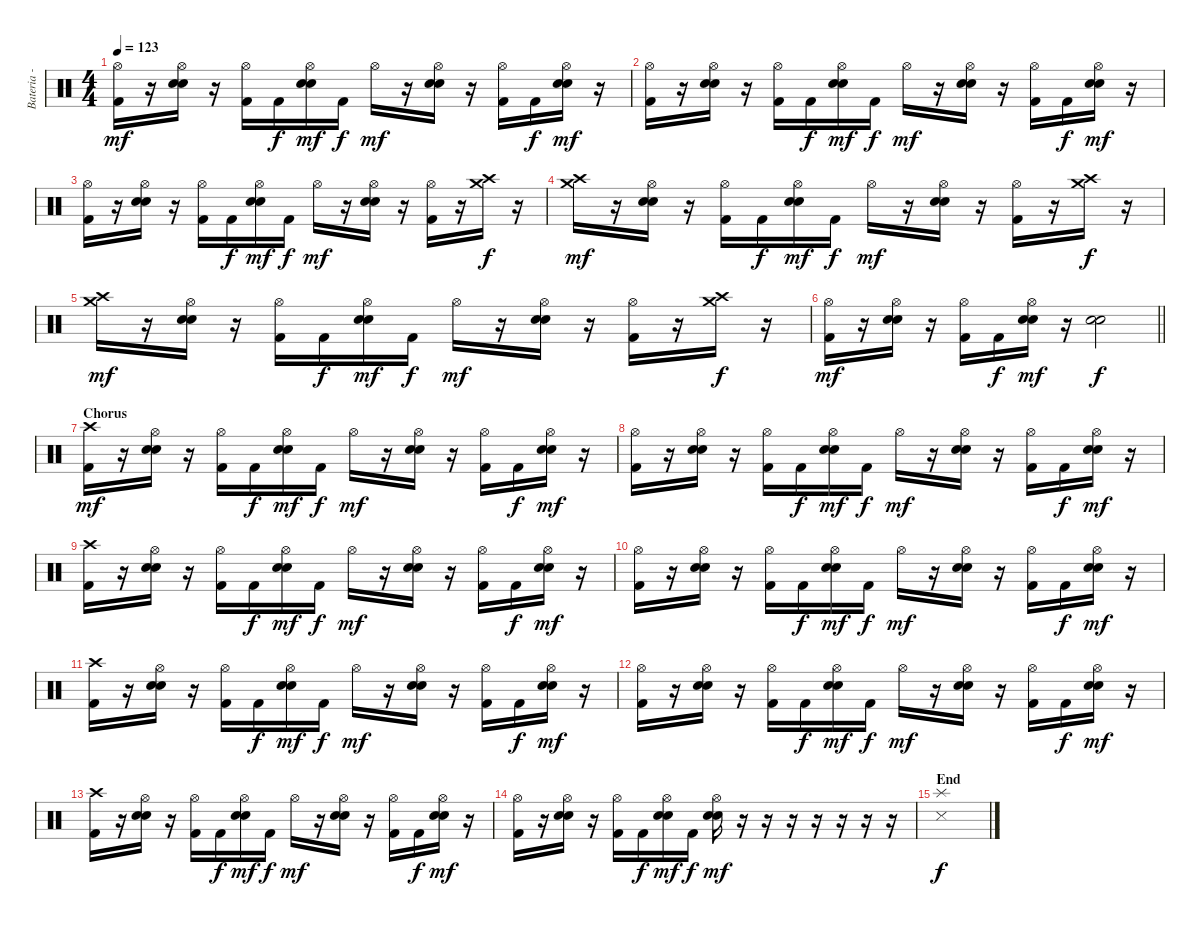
\track ("Bateria - Larzon" "Bateria - ") {instrument percussion}
\staff {score}
\articulation defaults
\ts (4 4)
\tempo 123
\clef neutral
\ks c
("Kick (hit) 2" "Hi-Hat (open)").16{dy mf} r.16 ("Electric Snare (hit)" "Electric Snare (hit)" "Hi-Hat (open)").16 r.16 ("Kick (hit) 2" "Hi-Hat (open)").16 "Kick (hit) 2".16{dy f} ("Electric Snare (hit)" "Electric Snare (hit)" "Hi-Hat (open)").16{dy mf} "Kick (hit) 2".16{dy f} "Hi-Hat (open)".16{dy mf} r.16 ("Electric Snare (hit)" "Electric Snare (hit)" "Hi-Hat (open)").16 r.16 ("Kick (hit) 2" "Hi-Hat (open)").16 "Kick (hit) 2".16{dy f} ("Electric Snare (hit)" "Electric Snare (hit)" "Hi-Hat (open)").16{dy mf} r.16 |
("Kick (hit) 2" "Hi-Hat (open)").16 r.16 ("Electric Snare (hit)" "Electric Snare (hit)" "Hi-Hat (open)").16 r.16 ("Kick (hit) 2" "Hi-Hat (open)").16 "Kick (hit) 2".16{dy f} ("Electric Snare (hit)" "Electric Snare (hit)" "Hi-Hat (open)").16{dy mf} "Kick (hit) 2".16{dy f} "Hi-Hat (open)".16{dy mf} r.16 ("Electric Snare (hit)" "Electric Snare (hit)" "Hi-Hat (open)").16 r.16 ("Kick (hit) 2" "Hi-Hat (open)").16 "Kick (hit) 2".16{dy f} ("Electric Snare (hit)" "Electric Snare (hit)" "Hi-Hat (open)").16{dy mf} r.16 |
("Kick (hit) 2" "Hi-Hat (open)").16 r.16 ("Electric Snare (hit)" "Electric Snare (hit)" "Hi-Hat (open)").16 r.16 ("Kick (hit) 2" "Hi-Hat (open)").16 "Kick (hit) 2".16{dy f} ("Electric Snare (hit)" "Electric Snare (hit)" "Hi-Hat (open)").16{dy mf} "Kick (hit) 2".16{dy f} "Hi-Hat (open)".16{dy mf} r.16 ("Electric Snare (hit)" "Electric Snare (hit)" "Hi-Hat (open)").16 r.16 ("Kick (hit) 2" "Hi-Hat (open)").16 r.16 ("Crash high (hit)" "Crash medium (hit)").16{dy f} r.16 |
("Crash high (hit)" "Crash medium (hit)").16{dy mf} r.16 ("Electric Snare (hit)" "Electric Snare (hit)" "Hi-Hat (open)").16 r.16 ("Kick (hit) 2" "Hi-Hat (open)").16 "Kick (hit) 2".16{dy f} ("Electric Snare (hit)" "Electric Snare (hit)" "Hi-Hat (open)").16{dy mf} "Kick (hit) 2".16{dy f} "Hi-Hat (open)".16{dy mf} r.16 ("Electric Snare (hit)" "Electric Snare (hit)" "Hi-Hat (open)").16 r.16 ("Kick (hit) 2" "Hi-Hat (open)").16 r.16 ("Crash high (hit)" "Crash medium (hit)").16{dy f} r.16 |
("Crash high (hit)" "Crash medium (hit)").16{dy mf} r.16 ("Electric Snare (hit)" "Electric Snare (hit)" "Hi-Hat (open)").16 r.16 ("Kick (hit) 2" "Hi-Hat (open)").16 "Kick (hit) 2".16{dy f} ("Electric Snare (hit)" "Electric Snare (hit)" "Hi-Hat (open)").16{dy mf} "Kick (hit) 2".16{dy f} "Hi-Hat (open)".16{dy mf} r.16 ("Electric Snare (hit)" "Electric Snare (hit)" "Hi-Hat (open)").16 r.16 ("Kick (hit) 2" "Hi-Hat (open)").16 r.16 ("Crash high (hit)" "Crash medium (hit)").16{dy f} r.16 |
\barLineRight lightlight
("Kick (hit) 2" "Hi-Hat (open)").16{dy mf} r.16 ("Electric Snare (hit)" "Electric Snare (hit)" "Hi-Hat (open)").16 r.16 ("Kick (hit) 2" "Hi-Hat (open)").16 "Kick (hit) 2".16{dy f} ("Electric Snare (hit)" "Electric Snare (hit)" "Hi-Hat (open)").16{dy mf} r.16 ("Electric Snare (hit)" "Electric Snare (hit)").2{dy f} |
\section ("" "Chorus")
("Kick (hit) 2" "Crash high (hit)").16{dy mf} r.16 ("Electric Snare (hit)" "Electric Snare (hit)" "Hi-Hat (open)").16 r.16 ("Kick (hit) 2" "Hi-Hat (open)").16 "Kick (hit) 2".16{dy f} ("Electric Snare (hit)" "Electric Snare (hit)" "Hi-Hat (open)").16{dy mf} "Kick (hit) 2".16{dy f} "Hi-Hat (open)".16{dy mf} r.16 ("Electric Snare (hit)" "Electric Snare (hit)" "Hi-Hat (open)").16 r.16 ("Kick (hit) 2" "Hi-Hat (open)").16 "Kick (hit) 2".16{dy f} ("Electric Snare (hit)" "Electric Snare (hit)" "Hi-Hat (open)").16{dy mf} r.16 |
("Kick (hit) 2" "Hi-Hat (open)").16 r.16 ("Electric Snare (hit)" "Electric Snare (hit)" "Hi-Hat (open)").16 r.16 ("Kick (hit) 2" "Hi-Hat (open)").16 "Kick (hit) 2".16{dy f} ("Electric Snare (hit)" "Electric Snare (hit)" "Hi-Hat (open)").16{dy mf} "Kick (hit) 2".16{dy f} "Hi-Hat (open)".16{dy mf} r.16 ("Electric Snare (hit)" "Electric Snare (hit)" "Hi-Hat (open)").16 r.16 ("Kick (hit) 2" "Hi-Hat (open)").16 "Kick (hit) 2".16{dy f} ("Electric Snare (hit)" "Electric Snare (hit)" "Hi-Hat (open)").16{dy mf} r.16 |
("Kick (hit) 2" "Crash high (hit)").16 r.16 ("Electric Snare (hit)" "Electric Snare (hit)" "Hi-Hat (open)").16 r.16 ("Kick (hit) 2" "Hi-Hat (open)").16 "Kick (hit) 2".16{dy f} ("Electric Snare (hit)" "Electric Snare (hit)" "Hi-Hat (open)").16{dy mf} "Kick (hit) 2".16{dy f} "Hi-Hat (open)".16{dy mf} r.16 ("Electric Snare (hit)" "Electric Snare (hit)" "Hi-Hat (open)").16 r.16 ("Kick (hit) 2" "Hi-Hat (open)").16 "Kick (hit) 2".16{dy f} ("Electric Snare (hit)" "Electric Snare (hit)" "Hi-Hat (open)").16{dy mf} r.16 |
("Kick (hit) 2" "Hi-Hat (open)").16 r.16 ("Electric Snare (hit)" "Electric Snare (hit)" "Hi-Hat (open)").16 r.16 ("Kick (hit) 2" "Hi-Hat (open)").16 "Kick (hit) 2".16{dy f} ("Electric Snare (hit)" "Electric Snare (hit)" "Hi-Hat (open)").16{dy mf} "Kick (hit) 2".16{dy f} "Hi-Hat (open)".16{dy mf} r.16 ("Electric Snare (hit)" "Electric Snare (hit)" "Hi-Hat (open)").16 r.16 ("Kick (hit) 2" "Hi-Hat (open)").16 "Kick (hit) 2".16{dy f} ("Electric Snare (hit)" "Electric Snare (hit)" "Hi-Hat (open)").16{dy mf} r.16 |
("Kick (hit) 2" "Crash high (hit)").16 r.16 ("Electric Snare (hit)" "Electric Snare (hit)" "Hi-Hat (open)").16 r.16 ("Kick (hit) 2" "Hi-Hat (open)").16 "Kick (hit) 2".16{dy f} ("Electric Snare (hit)" "Electric Snare (hit)" "Hi-Hat (open)").16{dy mf} "Kick (hit) 2".16{dy f} "Hi-Hat (open)".16{dy mf} r.16 ("Electric Snare (hit)" "Electric Snare (hit)" "Hi-Hat (open)").16 r.16 ("Kick (hit) 2" "Hi-Hat (open)").16 "Kick (hit) 2".16{dy f} ("Electric Snare (hit)" "Electric Snare (hit)" "Hi-Hat (open)").16{dy mf} r.16 |
("Kick (hit) 2" "Hi-Hat (open)").16 r.16 ("Electric Snare (hit)" "Electric Snare (hit)" "Hi-Hat (open)").16 r.16 ("Kick (hit) 2" "Hi-Hat (open)").16 "Kick (hit) 2".16{dy f} ("Electric Snare (hit)" "Electric Snare (hit)" "Hi-Hat (open)").16{dy mf} "Kick (hit) 2".16{dy f} "Hi-Hat (open)".16{dy mf} r.16 ("Electric Snare (hit)" "Electric Snare (hit)" "Hi-Hat (open)").16 r.16 ("Kick (hit) 2" "Hi-Hat (open)").16 "Kick (hit) 2".16{dy f} ("Electric Snare (hit)" "Electric Snare (hit)" "Hi-Hat (open)").16{dy mf} r.16 |
("Kick (hit) 2" "Crash high (hit)").16 r.16 ("Electric Snare (hit)" "Electric Snare (hit)" "Hi-Hat (open)").16 r.16 ("Kick (hit) 2" "Hi-Hat (open)").16 "Kick (hit) 2".16{dy f} ("Electric Snare (hit)" "Electric Snare (hit)" "Hi-Hat (open)").16{dy mf} "Kick (hit) 2".16{dy f} "Hi-Hat (open)".16{dy mf} r.16 ("Electric Snare (hit)" "Electric Snare (hit)" "Hi-Hat (open)").16 r.16 ("Kick (hit) 2" "Hi-Hat (open)").16 "Kick (hit) 2".16{dy f} ("Electric Snare (hit)" "Electric Snare (hit)" "Hi-Hat (open)").16{dy mf} r.16 |
("Kick (hit) 2" "Hi-Hat (open)").16 r.16 ("Electric Snare (hit)" "Electric Snare (hit)" "Hi-Hat (open)").16 r.16 ("Kick (hit) 2" "Hi-Hat (open)").16 "Kick (hit) 2".16{dy f} ("Electric Snare (hit)" "Electric Snare (hit)" "Hi-Hat (open)").16{dy mf} "Kick (hit) 2".16{dy f} ("Electric Snare (hit)" "Electric Snare (hit)" "Hi-Hat (open)").16{dy mf} r.16 r.16 r.16 r.16 r.16 r.16 r.16 |
\section ("" "End")
("Splash (hit)" "Snare (side stick) 3").1{dy f}
